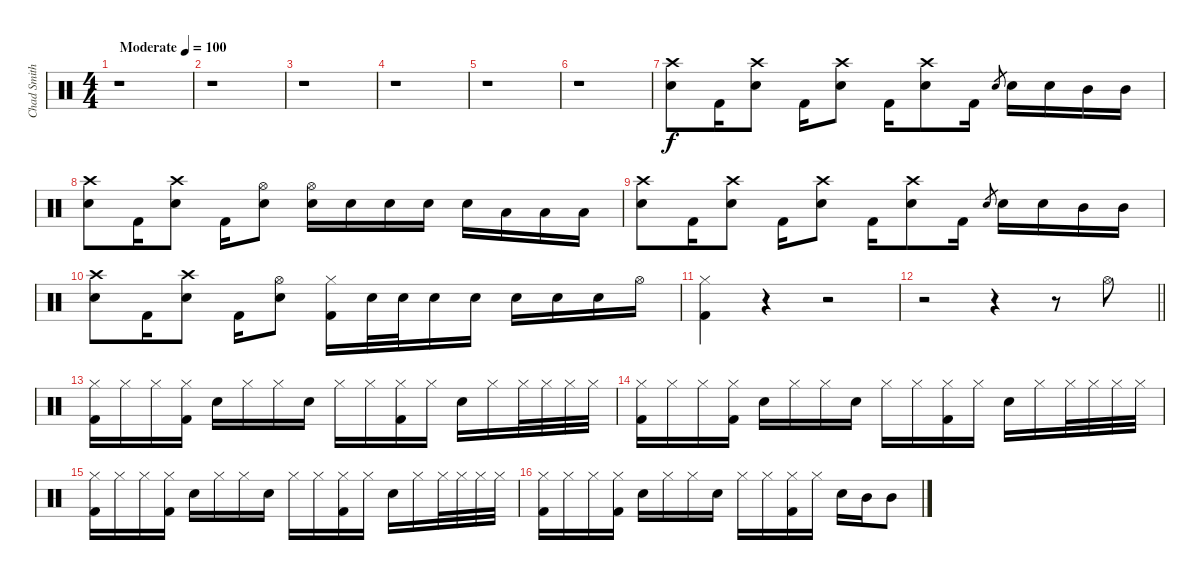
\track ("Chad Smith" "Chad Smith") {instrument percussion}
\staff {score}
\articulation defaults
\ts (4 4)
\tempo (100 "Moderate")
\clef neutral
\ks c
r.1{dy f} |
r.1 |
r.1 |
r.1 |
r.1 |
r.1 |
("Crash high (hit)" "Snare (hit) 2").8 "Kick (hit) 2".16 ("Crash high (hit)" "Snare (hit) 2").8 "Kick (hit) 2".16 ("Crash high (hit)" "Snare (hit) 2").8 "Kick (hit) 2".16 ("Crash high (hit)" "Snare (hit) 2").8 "Kick (hit) 2".16 "Snare (hit) 2".8{gr} "Snare (hit) 2".16 "Snare (hit) 2".16 "Mid Tom (hit)".16 "Mid Tom (hit)".16 |
("Crash high (hit)" "Snare (hit) 2").8 "Kick (hit) 2".16 ("Crash high (hit)" "Snare (hit) 2").8 "Kick (hit) 2".16 ("Hi-Hat (open)" "Snare (hit) 2").8 ("Hi-Hat (open)" "Snare (hit) 2").16 "Snare (hit) 2".16 "Snare (hit) 2".16 "Snare (hit) 2".16 "Snare (hit) 2".16 "Low Tom (hit)".16 "Low Tom (hit)".16 "Low Tom (hit)".16 |
("Crash high (hit)" "Snare (hit) 2").8 "Kick (hit) 2".16 ("Crash high (hit)" "Snare (hit) 2").8 "Kick (hit) 2".16 ("Crash high (hit)" "Snare (hit) 2").8 "Kick (hit) 2".16 ("Crash high (hit)" "Snare (hit) 2").8 "Kick (hit) 2".16 "Snare (hit) 2".8{gr} "Snare (hit) 2".16 "Snare (hit) 2".16 "Mid Tom (hit)".16 "Mid Tom (hit)".16 |
("Crash high (hit)" "Snare (hit) 2").8 "Kick (hit) 2".16 ("Crash high (hit)" "Snare (hit) 2").8 "Kick (hit) 2".16 ("Hi-Hat (open)" "Snare (hit) 2").8 ("Hi-Hat (closed)" "Kick (hit) 2").16 "Snare (hit) 2".32 "Snare (hit) 2".32 "Snare (hit) 2".16 "Snare (hit) 2".16 "Snare (hit) 2".16 "Snare (hit) 2".16 "Snare (hit) 2".16 "Hi-Hat (open)".16 |
("Hi-Hat (closed)" "Kick (hit) 2").4 r.4 r.2 |
\barLineRight lightlight
r.2 r.4 r.8 "Hi-Hat (open)".8 |
("Hi-Hat (closed)" "Kick (hit) 2").16 "Hi-Hat (closed)".16 "Hi-Hat (closed)".16 ("Hi-Hat (closed)" "Kick (hit) 2").16 "Snare (hit) 2".16 "Hi-Hat (closed)".16 "Hi-Hat (closed)".16 "Snare (hit) 2".16 "Hi-Hat (closed)".16 "Hi-Hat (closed)".16 ("Hi-Hat (closed)" "Kick (hit) 2").16 "Hi-Hat (closed)".16 "Snare (hit) 2".16 "Hi-Hat (closed)".16 "Hi-Hat (closed)".32 "Hi-Hat (closed)".32 "Hi-Hat (closed)".32 "Hi-Hat (closed)".32 |
("Hi-Hat (closed)" "Kick (hit) 2").16 "Hi-Hat (closed)".16 "Hi-Hat (closed)".16 ("Hi-Hat (closed)" "Kick (hit) 2").16 "Snare (hit) 2".16 "Hi-Hat (closed)".16 "Hi-Hat (closed)".16 "Snare (hit) 2".16 "Hi-Hat (closed)".16 "Hi-Hat (closed)".16 ("Hi-Hat (closed)" "Kick (hit) 2").16 "Hi-Hat (closed)".16 "Snare (hit) 2".16 "Hi-Hat (closed)".16 "Hi-Hat (closed)".32 "Hi-Hat (closed)".32 "Hi-Hat (closed)".32 "Hi-Hat (closed)".32 |
("Hi-Hat (closed)" "Kick (hit) 2").16 "Hi-Hat (closed)".16 "Hi-Hat (closed)".16 ("Hi-Hat (closed)" "Kick (hit) 2").16 "Snare (hit) 2".16 "Hi-Hat (closed)".16 "Hi-Hat (closed)".16 "Snare (hit) 2".16 "Hi-Hat (closed)".16 "Hi-Hat (closed)".16 ("Hi-Hat (closed)" "Kick (hit) 2").16 "Hi-Hat (closed)".16 "Snare (hit) 2".16 "Hi-Hat (closed)".16 "Hi-Hat (closed)".32 "Hi-Hat (closed)".32 "Hi-Hat (closed)".32 "Hi-Hat (closed)".32 |
("Hi-Hat (closed)" "Kick (hit) 2").16 "Hi-Hat (closed)".16 "Hi-Hat (closed)".16 ("Hi-Hat (closed)" "Kick (hit) 2").16 "Snare (hit) 2".16 "Hi-Hat (closed)".16 "Hi-Hat (closed)".16 "Snare (hit) 2".16 "Hi-Hat (closed)".16 "Hi-Hat (closed)".16 ("Hi-Hat (closed)" "Kick (hit) 2").16 "Hi-Hat (closed)".16 "Snare (hit) 2".16 "Mid Tom (hit)".16 "Mid Tom (hit)".8
